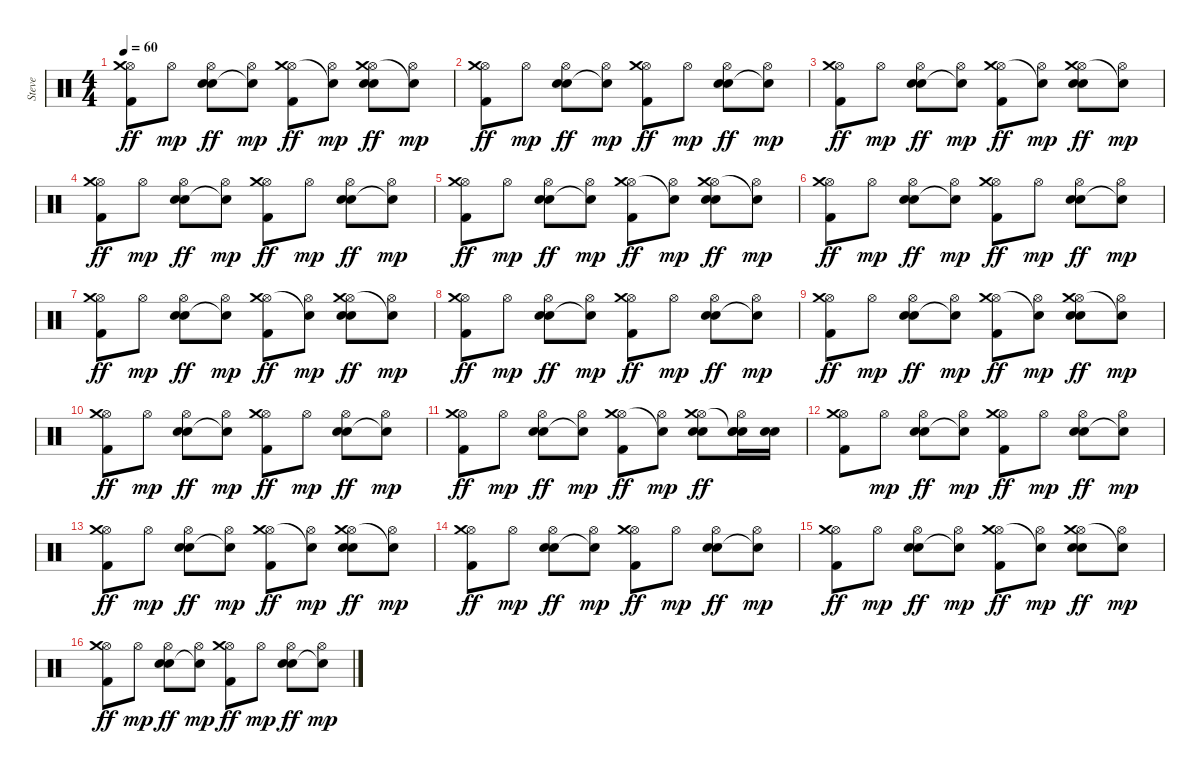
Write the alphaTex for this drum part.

\track ("Steve " "Steve ") {instrument percussion}
\staff {score}
\articulation defaults
\ts (4 4)
\tempo 60
\clef neutral
\ks c
("Hi-Hat (open)" "Crash medium (hit)" "Kick (hit) 2").8{dy ff} "Hi-Hat (open)".8{dy mp} ("Hi-Hat (open)" "Electric Snare (hit)" "Electric Snare (hit)").8{dy ff} ("Hi-Hat (open)" "Snare (hit)"{t}).8{dy mp} ("Hi-Hat (open)" "Crash medium (hit)" "Kick (hit) 2").8{dy ff} ("Hi-Hat (open)" "Snare (hit)"{t}).8{dy mp} ("Hi-Hat (open)" "Crash medium (hit)" "Electric Snare (hit)" "Electric Snare (hit)").8{dy ff} ("Hi-Hat (open)" "Snare (hit)"{t}).8{dy mp} |
("Hi-Hat (open)" "Crash medium (hit)" "Kick (hit) 2").8{dy ff} "Hi-Hat (open)".8{dy mp} ("Hi-Hat (open)" "Electric Snare (hit)" "Electric Snare (hit)").8{dy ff} ("Hi-Hat (open)" "Snare (hit)"{t}).8{dy mp} ("Hi-Hat (open)" "Crash medium (hit)" "Kick (hit) 2").8{dy ff} "Hi-Hat (open)".8{dy mp} ("Hi-Hat (open)" "Electric Snare (hit)" "Electric Snare (hit)").8{dy ff} ("Hi-Hat (open)" "Snare (hit)"{t}).8{dy mp} |
("Hi-Hat (open)" "Crash medium (hit)" "Kick (hit) 2").8{dy ff} "Hi-Hat (open)".8{dy mp} ("Hi-Hat (open)" "Electric Snare (hit)" "Electric Snare (hit)").8{dy ff} ("Hi-Hat (open)" "Snare (hit)"{t}).8{dy mp} ("Hi-Hat (open)" "Crash medium (hit)" "Kick (hit) 2").8{dy ff} ("Hi-Hat (open)" "Snare (hit)"{t}).8{dy mp} ("Hi-Hat (open)" "Crash medium (hit)" "Electric Snare (hit)" "Electric Snare (hit)").8{dy ff} ("Hi-Hat (open)" "Snare (hit)"{t}).8{dy mp} |
("Hi-Hat (open)" "Crash medium (hit)" "Kick (hit) 2").8{dy ff} "Hi-Hat (open)".8{dy mp} ("Hi-Hat (open)" "Electric Snare (hit)" "Electric Snare (hit)").8{dy ff} ("Hi-Hat (open)" "Snare (hit)"{t}).8{dy mp} ("Hi-Hat (open)" "Crash medium (hit)" "Kick (hit) 2").8{dy ff} "Hi-Hat (open)".8{dy mp} ("Hi-Hat (open)" "Electric Snare (hit)" "Electric Snare (hit)").8{dy ff} ("Hi-Hat (open)" "Snare (hit)"{t}).8{dy mp} |
("Hi-Hat (open)" "Crash medium (hit)" "Kick (hit) 2").8{dy ff} "Hi-Hat (open)".8{dy mp} ("Hi-Hat (open)" "Electric Snare (hit)" "Electric Snare (hit)").8{dy ff} ("Hi-Hat (open)" "Snare (hit)"{t}).8{dy mp} ("Hi-Hat (open)" "Crash medium (hit)" "Kick (hit) 2").8{dy ff} ("Hi-Hat (open)" "Snare (hit)"{t}).8{dy mp} ("Hi-Hat (open)" "Crash medium (hit)" "Electric Snare (hit)" "Electric Snare (hit)").8{dy ff} ("Hi-Hat (open)" "Snare (hit)"{t}).8{dy mp} |
("Hi-Hat (open)" "Crash medium (hit)" "Kick (hit) 2").8{dy ff} "Hi-Hat (open)".8{dy mp} ("Hi-Hat (open)" "Electric Snare (hit)" "Electric Snare (hit)").8{dy ff} ("Hi-Hat (open)" "Snare (hit)"{t}).8{dy mp} ("Hi-Hat (open)" "Crash medium (hit)" "Kick (hit) 2").8{dy ff} "Hi-Hat (open)".8{dy mp} ("Hi-Hat (open)" "Electric Snare (hit)" "Electric Snare (hit)").8{dy ff} ("Hi-Hat (open)" "Snare (hit)"{t}).8{dy mp} |
("Hi-Hat (open)" "Crash medium (hit)" "Kick (hit) 2").8{dy ff} "Hi-Hat (open)".8{dy mp} ("Hi-Hat (open)" "Electric Snare (hit)" "Electric Snare (hit)").8{dy ff} ("Hi-Hat (open)" "Snare (hit)"{t}).8{dy mp} ("Hi-Hat (open)" "Crash medium (hit)" "Kick (hit) 2").8{dy ff} ("Hi-Hat (open)" "Snare (hit)"{t}).8{dy mp} ("Hi-Hat (open)" "Crash medium (hit)" "Electric Snare (hit)" "Electric Snare (hit)").8{dy ff} ("Hi-Hat (open)" "Snare (hit)"{t}).8{dy mp} |
("Hi-Hat (open)" "Crash medium (hit)" "Kick (hit) 2").8{dy ff} "Hi-Hat (open)".8{dy mp} ("Hi-Hat (open)" "Electric Snare (hit)" "Electric Snare (hit)").8{dy ff} ("Hi-Hat (open)" "Snare (hit)"{t}).8{dy mp} ("Hi-Hat (open)" "Crash medium (hit)" "Kick (hit) 2").8{dy ff} "Hi-Hat (open)".8{dy mp} ("Hi-Hat (open)" "Electric Snare (hit)" "Electric Snare (hit)").8{dy ff} ("Hi-Hat (open)" "Snare (hit)"{t}).8{dy mp} |
("Hi-Hat (open)" "Crash medium (hit)" "Kick (hit) 2").8{dy ff} "Hi-Hat (open)".8{dy mp} ("Hi-Hat (open)" "Electric Snare (hit)" "Electric Snare (hit)").8{dy ff} ("Hi-Hat (open)" "Snare (hit)"{t}).8{dy mp} ("Hi-Hat (open)" "Crash medium (hit)" "Kick (hit) 2").8{dy ff} ("Hi-Hat (open)" "Snare (hit)"{t}).8{dy mp} ("Hi-Hat (open)" "Crash medium (hit)" "Electric Snare (hit)" "Electric Snare (hit)").8{dy ff} ("Hi-Hat (open)" "Snare (hit)"{t}).8{dy mp} |
("Hi-Hat (open)" "Crash medium (hit)" "Kick (hit) 2").8{dy ff} "Hi-Hat (open)".8{dy mp} ("Hi-Hat (open)" "Electric Snare (hit)" "Electric Snare (hit)").8{dy ff} ("Hi-Hat (open)" "Snare (hit)"{t}).8{dy mp} ("Hi-Hat (open)" "Crash medium (hit)" "Kick (hit) 2").8{dy ff} "Hi-Hat (open)".8{dy mp} ("Hi-Hat (open)" "Electric Snare (hit)" "Electric Snare (hit)").8{dy ff} ("Hi-Hat (open)" "Snare (hit)"{t}).8{dy mp} |
("Hi-Hat (open)" "Crash medium (hit)" "Kick (hit) 2").8{dy ff} "Hi-Hat (open)".8{dy mp} ("Hi-Hat (open)" "Electric Snare (hit)" "Electric Snare (hit)").8{dy ff} ("Hi-Hat (open)" "Snare (hit)"{t}).8{dy mp} ("Hi-Hat (open)" "Crash medium (hit)" "Kick (hit) 2").8{dy ff} ("Hi-Hat (open)" "Snare (hit)"{t}).8{dy mp} ("Hi-Hat (open)" "Crash medium (hit)" "Electric Snare (hit)" "Electric Snare (hit)").8{dy ff} ("Hi-Hat (open)" "Snare (hit)"{t} "Electric Snare (hit)" "Electric Snare (hit)").16 ("Electric Snare (hit)" "Electric Snare (hit)").16 |
("Hi-Hat (open)" "Crash medium (hit)" "Kick (hit) 2").8 "Hi-Hat (open)".8{dy mp} ("Hi-Hat (open)" "Electric Snare (hit)" "Electric Snare (hit)").8{dy ff} ("Hi-Hat (open)" "Snare (hit)"{t}).8{dy mp} ("Hi-Hat (open)" "Crash medium (hit)" "Kick (hit) 2").8{dy ff} "Hi-Hat (open)".8{dy mp} ("Hi-Hat (open)" "Electric Snare (hit)" "Electric Snare (hit)").8{dy ff} ("Hi-Hat (open)" "Snare (hit)"{t}).8{dy mp} |
("Hi-Hat (open)" "Crash medium (hit)" "Kick (hit) 2").8{dy ff} "Hi-Hat (open)".8{dy mp} ("Hi-Hat (open)" "Electric Snare (hit)" "Electric Snare (hit)").8{dy ff} ("Hi-Hat (open)" "Snare (hit)"{t}).8{dy mp} ("Hi-Hat (open)" "Crash medium (hit)" "Kick (hit) 2").8{dy ff} ("Hi-Hat (open)" "Snare (hit)"{t}).8{dy mp} ("Hi-Hat (open)" "Crash medium (hit)" "Electric Snare (hit)" "Electric Snare (hit)").8{dy ff} ("Hi-Hat (open)" "Snare (hit)"{t}).8{dy mp} |
("Hi-Hat (open)" "Crash medium (hit)" "Kick (hit) 2").8{dy ff} "Hi-Hat (open)".8{dy mp} ("Hi-Hat (open)" "Electric Snare (hit)" "Electric Snare (hit)").8{dy ff} ("Hi-Hat (open)" "Snare (hit)"{t}).8{dy mp} ("Hi-Hat (open)" "Crash medium (hit)" "Kick (hit) 2").8{dy ff} "Hi-Hat (open)".8{dy mp} ("Hi-Hat (open)" "Electric Snare (hit)" "Electric Snare (hit)").8{dy ff} ("Hi-Hat (open)" "Snare (hit)"{t}).8{dy mp} |
("Hi-Hat (open)" "Crash medium (hit)" "Kick (hit) 2").8{dy ff} "Hi-Hat (open)".8{dy mp} ("Hi-Hat (open)" "Electric Snare (hit)" "Electric Snare (hit)").8{dy ff} ("Hi-Hat (open)" "Snare (hit)"{t}).8{dy mp} ("Hi-Hat (open)" "Crash medium (hit)" "Kick (hit) 2").8{dy ff} ("Hi-Hat (open)" "Snare (hit)"{t}).8{dy mp} ("Hi-Hat (open)" "Crash medium (hit)" "Electric Snare (hit)" "Electric Snare (hit)").8{dy ff} ("Hi-Hat (open)" "Snare (hit)"{t}).8{dy mp} |
("Hi-Hat (open)" "Crash medium (hit)" "Kick (hit) 2").8{dy ff} "Hi-Hat (open)".8{dy mp} ("Hi-Hat (open)" "Electric Snare (hit)" "Electric Snare (hit)").8{dy ff} ("Hi-Hat (open)" "Snare (hit)"{t}).8{dy mp} ("Hi-Hat (open)" "Crash medium (hit)" "Kick (hit) 2").8{dy ff} "Hi-Hat (open)".8{dy mp} ("Hi-Hat (open)" "Electric Snare (hit)" "Electric Snare (hit)").8{dy ff} ("Hi-Hat (open)" "Snare (hit)"{t}).8{dy mp}
